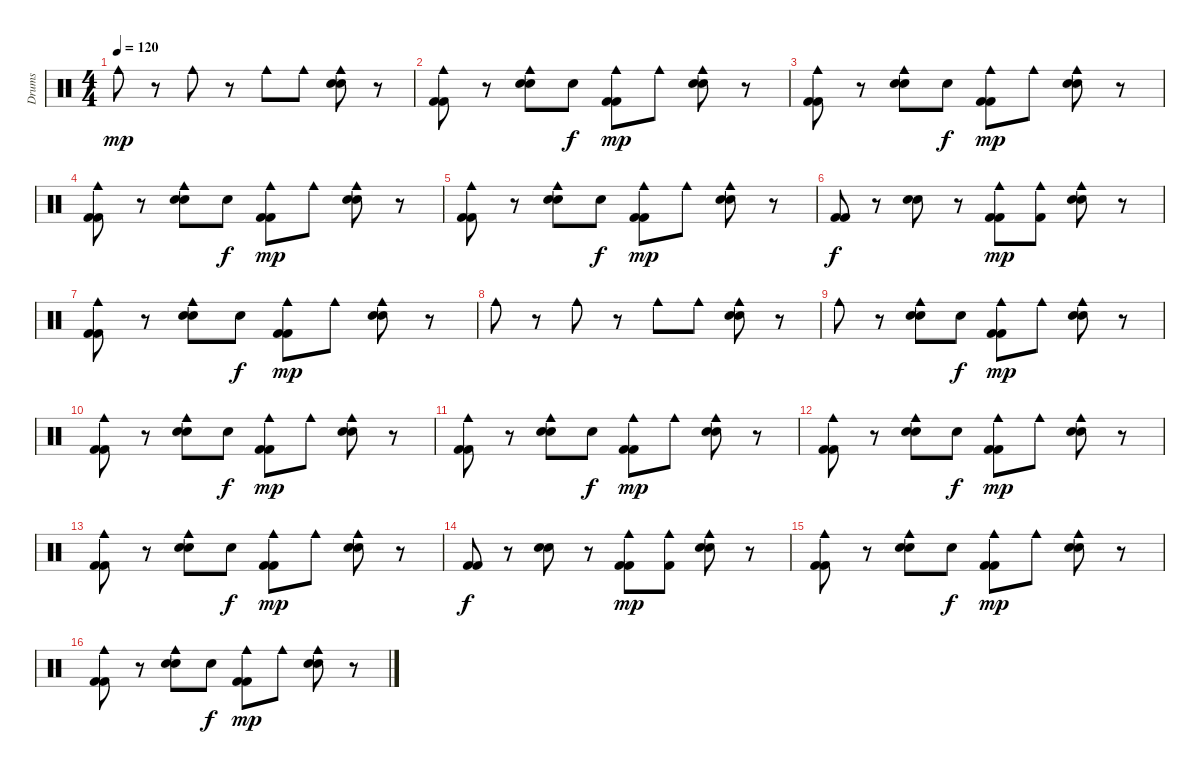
\track ("Drums" "Drums") {instrument percussion}
\staff {score}
\articulation defaults
\ts (4 4)
\tempo 120
\clef neutral
\ks c "Cowbell medium (hit)".8{dy mp}
r.8 "Cowbell medium (hit)".8 r.8 "Cowbell medium (hit)".8 "Cowbell medium (hit)".8 ("Snare (hit) 2" "Snare (hit) 2" "Cowbell medium (hit)").8 r.8 |
("Kick (hit) 2" "Kick (hit) 2" "Cowbell medium (hit)").8 r.8 ("Snare (hit) 2" "Snare (hit) 2" "Cowbell medium (hit)").8 "Snare (hit) 2".8{dy f} ("Kick (hit) 2" "Kick (hit) 2" "Cowbell medium (hit)").8{dy mp} "Cowbell medium (hit)".8 ("Snare (hit) 2" "Snare (hit) 2" "Cowbell medium (hit)").8 r.8 |
("Kick (hit) 2" "Kick (hit) 2" "Cowbell medium (hit)").8 r.8 ("Snare (hit) 2" "Snare (hit) 2" "Cowbell medium (hit)").8 "Snare (hit) 2".8{dy f} ("Kick (hit) 2" "Kick (hit) 2" "Cowbell medium (hit)").8{dy mp} "Cowbell medium (hit)".8 ("Snare (hit) 2" "Snare (hit) 2" "Cowbell medium (hit)").8 r.8 |
("Kick (hit) 2" "Kick (hit) 2" "Cowbell medium (hit)").8 r.8 ("Snare (hit) 2" "Snare (hit) 2" "Cowbell medium (hit)").8 "Snare (hit) 2".8{dy f} ("Kick (hit) 2" "Kick (hit) 2" "Cowbell medium (hit)").8{dy mp} "Cowbell medium (hit)".8 ("Snare (hit) 2" "Snare (hit) 2" "Cowbell medium (hit)").8 r.8 |
("Kick (hit) 2" "Kick (hit) 2" "Cowbell medium (hit)").8 r.8 ("Snare (hit) 2" "Snare (hit) 2" "Cowbell medium (hit)").8 "Snare (hit) 2".8{dy f} ("Kick (hit) 2" "Kick (hit) 2" "Cowbell medium (hit)").8{dy mp} "Cowbell medium (hit)".8 ("Snare (hit) 2" "Snare (hit) 2" "Cowbell medium (hit)").8 r.8 |
("Kick (hit) 2" "Kick (hit) 2").8{dy f} r.8 ("Snare (hit) 2" "Snare (hit) 2").8 r.8 ("Kick (hit) 2" "Kick (hit) 2" "Cowbell medium (hit)").8{dy mp} ("Kick (hit) 2" "Cowbell medium (hit)").8 ("Snare (hit) 2" "Snare (hit) 2" "Cowbell medium (hit)").8 r.8 |
("Kick (hit) 2" "Kick (hit) 2" "Cowbell medium (hit)").8 r.8 ("Snare (hit) 2" "Snare (hit) 2" "Cowbell medium (hit)").8 "Snare (hit) 2".8{dy f} ("Kick (hit) 2" "Kick (hit) 2" "Cowbell medium (hit)").8{dy mp} "Cowbell medium (hit)".8 ("Snare (hit) 2" "Snare (hit) 2" "Cowbell medium (hit)").8 r.8 |
"Cowbell medium (hit)".8 r.8 "Cowbell medium (hit)".8 r.8 "Cowbell medium (hit)".8 "Cowbell medium (hit)".8 ("Snare (hit) 2" "Snare (hit) 2" "Cowbell medium (hit)").8 r.8 |
"Cowbell medium (hit)".8 r.8 ("Snare (hit) 2" "Snare (hit) 2" "Cowbell medium (hit)").8 "Snare (hit) 2".8{dy f} ("Kick (hit) 2" "Kick (hit) 2" "Cowbell medium (hit)").8{dy mp} "Cowbell medium (hit)".8 ("Snare (hit) 2" "Snare (hit) 2" "Cowbell medium (hit)").8 r.8 |
("Kick (hit) 2" "Kick (hit) 2" "Cowbell medium (hit)").8 r.8 ("Snare (hit) 2" "Snare (hit) 2" "Cowbell medium (hit)").8 "Snare (hit) 2".8{dy f} ("Kick (hit) 2" "Kick (hit) 2" "Cowbell medium (hit)").8{dy mp} "Cowbell medium (hit)".8 ("Snare (hit) 2" "Snare (hit) 2" "Cowbell medium (hit)").8 r.8 |
("Kick (hit) 2" "Kick (hit) 2" "Cowbell medium (hit)").8 r.8 ("Snare (hit) 2" "Snare (hit) 2" "Cowbell medium (hit)").8 "Snare (hit) 2".8{dy f} ("Kick (hit) 2" "Kick (hit) 2" "Cowbell medium (hit)").8{dy mp} "Cowbell medium (hit)".8 ("Snare (hit) 2" "Snare (hit) 2" "Cowbell medium (hit)").8 r.8 |
("Kick (hit) 2" "Kick (hit) 2" "Cowbell medium (hit)").8 r.8 ("Snare (hit) 2" "Snare (hit) 2" "Cowbell medium (hit)").8 "Snare (hit) 2".8{dy f} ("Kick (hit) 2" "Kick (hit) 2" "Cowbell medium (hit)").8{dy mp} "Cowbell medium (hit)".8 ("Snare (hit) 2" "Snare (hit) 2" "Cowbell medium (hit)").8 r.8 |
("Kick (hit) 2" "Kick (hit) 2" "Cowbell medium (hit)").8 r.8 ("Snare (hit) 2" "Snare (hit) 2" "Cowbell medium (hit)").8 "Snare (hit) 2".8{dy f} ("Kick (hit) 2" "Kick (hit) 2" "Cowbell medium (hit)").8{dy mp} "Cowbell medium (hit)".8 ("Snare (hit) 2" "Snare (hit) 2" "Cowbell medium (hit)").8 r.8 |
("Kick (hit) 2" "Kick (hit) 2").8{dy f} r.8 ("Snare (hit) 2" "Snare (hit) 2").8 r.8 ("Kick (hit) 2" "Kick (hit) 2" "Cowbell medium (hit)").8{dy mp} ("Kick (hit) 2" "Cowbell medium (hit)").8 ("Snare (hit) 2" "Snare (hit) 2" "Cowbell medium (hit)").8 r.8 |
("Kick (hit) 2" "Kick (hit) 2" "Cowbell medium (hit)").8 r.8 ("Snare (hit) 2" "Snare (hit) 2" "Cowbell medium (hit)").8 "Snare (hit) 2".8{dy f} ("Kick (hit) 2" "Kick (hit) 2" "Cowbell medium (hit)").8{dy mp} "Cowbell medium (hit)".8 ("Snare (hit) 2" "Snare (hit) 2" "Cowbell medium (hit)").8 r.8 |
("Kick (hit) 2" "Kick (hit) 2" "Cowbell medium (hit)").8 r.8 ("Snare (hit) 2" "Snare (hit) 2" "Cowbell medium (hit)").8 "Snare (hit) 2".8{dy f} ("Kick (hit) 2" "Kick (hit) 2" "Cowbell medium (hit)").8{dy mp} "Cowbell medium (hit)".8 ("Snare (hit) 2" "Snare (hit) 2" "Cowbell medium (hit)").8 r.8
